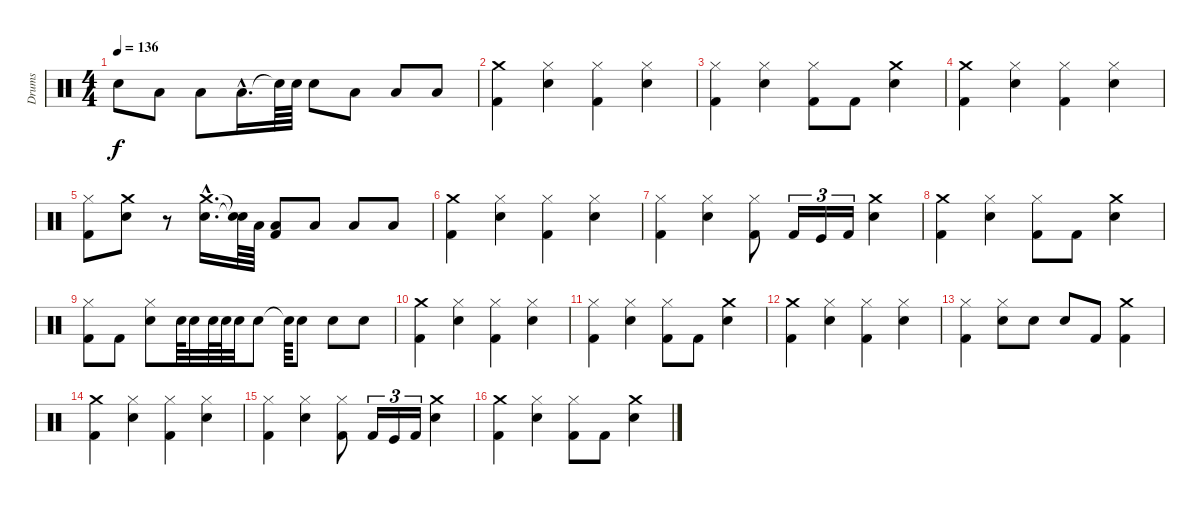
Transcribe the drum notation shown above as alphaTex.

\track ("Drums" "Drums") {instrument percussion}
\staff {score}
\articulation defaults
\ts (4 4)
\tempo 136
\clef neutral
\ks c "Snare (hit) 2".8{dy f} "Low Tom (hit)".8 "Low Tom (hit)".8 "Low Tom (hit)"{hac}.16{d} "Snare (hit)"{t}.64 "Snare (hit) 2".64 "Snare (hit) 2".8 "Low Tom (hit)".8 "Low Tom (hit)".8 "Low Tom (hit)".8
|
("Kick (hit) 2" "Crash medium (hit)").4 ("Hi-Hat (closed)" "Snare (hit) 2").4 ("Kick (hit) 2" "Hi-Hat (closed)").4 ("Hi-Hat (closed)" "Snare (hit) 2").4 |
("Hi-Hat (closed)" "Kick (hit) 2").4 ("Snare (hit) 2" "Hi-Hat (closed)").4 ("Kick (hit) 2" "Hi-Hat (closed)").8 "Kick (hit) 2".8 ("Crash medium (hit)" "Snare (hit) 2").4 |
("Kick (hit) 2" "Crash medium (hit)").4 ("Hi-Hat (closed)" "Snare (hit) 2").4 ("Kick (hit) 2" "Hi-Hat (closed)").4 ("Snare (hit) 2" "Hi-Hat (closed)").4 |
("Hi-Hat (closed)" "Kick (hit) 2").8 ("Crash medium (hit)" "Snare (hit) 2").8 r.8 ("Crash medium (hit)"{hac} "Snare (hit) 2"{hac}).16{d} ("Snare (hit)"{t} "Snare (hit)"{t}).64 "Low Tom (hit)".64 ("Low Tom (hit)" "Kick (hit) 2").8 "Low Tom (hit)".8 "Low Tom (hit)".8 "Low Tom (hit)".8 |
("Crash medium (hit)" "Kick (hit) 2").4 ("Snare (hit) 2" "Hi-Hat (closed)").4 ("Hi-Hat (closed)" "Kick (hit) 2").4 ("Snare (hit) 2" "Hi-Hat (closed)").4 |
("Hi-Hat (closed)" "Kick (hit) 2").4 ("Snare (hit) 2" "Hi-Hat (closed)").4 ("Kick (hit) 2" "Hi-Hat (closed)").8 "Kick (hit) 2".16{tu (3 2)} "Kick (hit)".16{tu (3 2)} "Kick (hit) 2".16{tu (3 2)} ("Crash medium (hit)" "Snare (hit) 2").4 |
("Kick (hit) 2" "Crash medium (hit)").4 ("Hi-Hat (closed)" "Snare (hit) 2").4 ("Kick (hit) 2" "Hi-Hat (closed)").8 "Kick (hit) 2".8 ("Crash medium (hit)" "Snare (hit) 2").4 |
("Hi-Hat (closed)" "Kick (hit) 2").8 "Kick (hit) 2".8 ("Hi-Hat (closed)" "Snare (hit) 2").8 "Snare (hit) 2".64 "Snare (hit) 2".32 "Snare (hit) 2".64 "Snare (hit) 2".64 "Snare (hit) 2".32 "Snare (hit) 2".8 "Snare (hit)"{t}.64 "Snare (hit) 2".8 "Snare (hit) 2".8 "Snare (hit) 2".8 |
("Kick (hit) 2" "Crash medium (hit)").4 ("Hi-Hat (closed)" "Snare (hit) 2").4 ("Kick (hit) 2" "Hi-Hat (closed)").4 ("Hi-Hat (closed)" "Snare (hit) 2").4 |
("Hi-Hat (closed)" "Kick (hit) 2").4 ("Snare (hit) 2" "Hi-Hat (closed)").4 ("Kick (hit) 2" "Hi-Hat (closed)").8 "Kick (hit) 2".8 ("Crash medium (hit)" "Snare (hit) 2").4 |
("Kick (hit) 2" "Crash medium (hit)").4 ("Hi-Hat (closed)" "Snare (hit) 2").4 ("Kick (hit) 2" "Hi-Hat (closed)").4 ("Snare (hit) 2" "Hi-Hat (closed)").4 |
("Kick (hit) 2" "Hi-Hat (closed)").4 ("Snare (hit) 2" "Hi-Hat (closed)").8 "Snare (hit) 2".8 "Snare (hit) 2".8 "Kick (hit) 2".8 ("Crash medium (hit)" "Kick (hit) 2").4 |
("Crash medium (hit)" "Kick (hit) 2").4 ("Snare (hit) 2" "Hi-Hat (closed)").4 ("Hi-Hat (closed)" "Kick (hit) 2").4 ("Snare (hit) 2" "Hi-Hat (closed)").4 |
("Hi-Hat (closed)" "Kick (hit) 2").4 ("Snare (hit) 2" "Hi-Hat (closed)").4 ("Kick (hit) 2" "Hi-Hat (closed)").8 "Kick (hit) 2".16{tu (3 2)} "Kick (hit)".16{tu (3 2)} "Kick (hit) 2".16{tu (3 2)} ("Crash medium (hit)" "Snare (hit) 2").4 |
("Kick (hit) 2" "Crash medium (hit)").4 ("Hi-Hat (closed)" "Snare (hit) 2").4 ("Kick (hit) 2" "Hi-Hat (closed)").8 "Kick (hit) 2".8 ("Crash medium (hit)" "Snare (hit) 2").4
